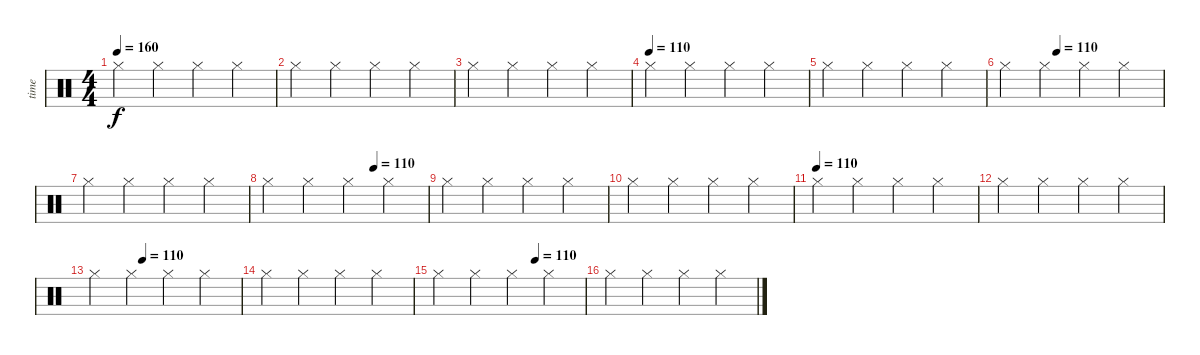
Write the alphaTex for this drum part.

\track ("time" "time") {instrument percussion}
\staff {score}
\articulation defaults
\ts (4 4)
\tempo 160
\clef neutral
\ks c "Hi-Hat (closed)".4{dy f} "Hi-Hat (closed)".4 "Hi-Hat (closed)".4 "Hi-Hat (closed)".4
|
"Hi-Hat (closed)".4 "Hi-Hat (closed)".4 "Hi-Hat (closed)".4 "Hi-Hat (closed)".4 |
"Hi-Hat (closed)".4 "Hi-Hat (closed)".4 "Hi-Hat (closed)".4 "Hi-Hat (closed)".4 |
\tempo (110)
"Hi-Hat (closed)".4 "Hi-Hat (closed)".4 "Hi-Hat (closed)".4 "Hi-Hat (closed)".4 |
"Hi-Hat (closed)".4 "Hi-Hat (closed)".4 "Hi-Hat (closed)".4 "Hi-Hat (closed)".4 |
\tempo (110 0.3333333333333333)
"Hi-Hat (closed)".4 "Hi-Hat (closed)".4 "Hi-Hat (closed)".4 "Hi-Hat (closed)".4 |
"Hi-Hat (closed)".4 "Hi-Hat (closed)".4 "Hi-Hat (closed)".4 "Hi-Hat (closed)".4 |
\tempo (110 0.6666666666666666)
"Hi-Hat (closed)".4 "Hi-Hat (closed)".4 "Hi-Hat (closed)".4 "Hi-Hat (closed)".4 |
"Hi-Hat (closed)".4 "Hi-Hat (closed)".4 "Hi-Hat (closed)".4 "Hi-Hat (closed)".4 |
"Hi-Hat (closed)".4 "Hi-Hat (closed)".4 "Hi-Hat (closed)".4 "Hi-Hat (closed)".4 |
\tempo (110)
"Hi-Hat (closed)".4 "Hi-Hat (closed)".4 "Hi-Hat (closed)".4 "Hi-Hat (closed)".4 |
"Hi-Hat (closed)".4 "Hi-Hat (closed)".4 "Hi-Hat (closed)".4 "Hi-Hat (closed)".4 |
\tempo (110 0.3333333333333333)
"Hi-Hat (closed)".4 "Hi-Hat (closed)".4 "Hi-Hat (closed)".4 "Hi-Hat (closed)".4 |
"Hi-Hat (closed)".4 "Hi-Hat (closed)".4 "Hi-Hat (closed)".4 "Hi-Hat (closed)".4 |
\tempo (110 0.6666666666666666)
"Hi-Hat (closed)".4 "Hi-Hat (closed)".4 "Hi-Hat (closed)".4 "Hi-Hat (closed)".4 |
"Hi-Hat (closed)".4 "Hi-Hat (closed)".4 "Hi-Hat (closed)".4 "Hi-Hat (closed)".4
